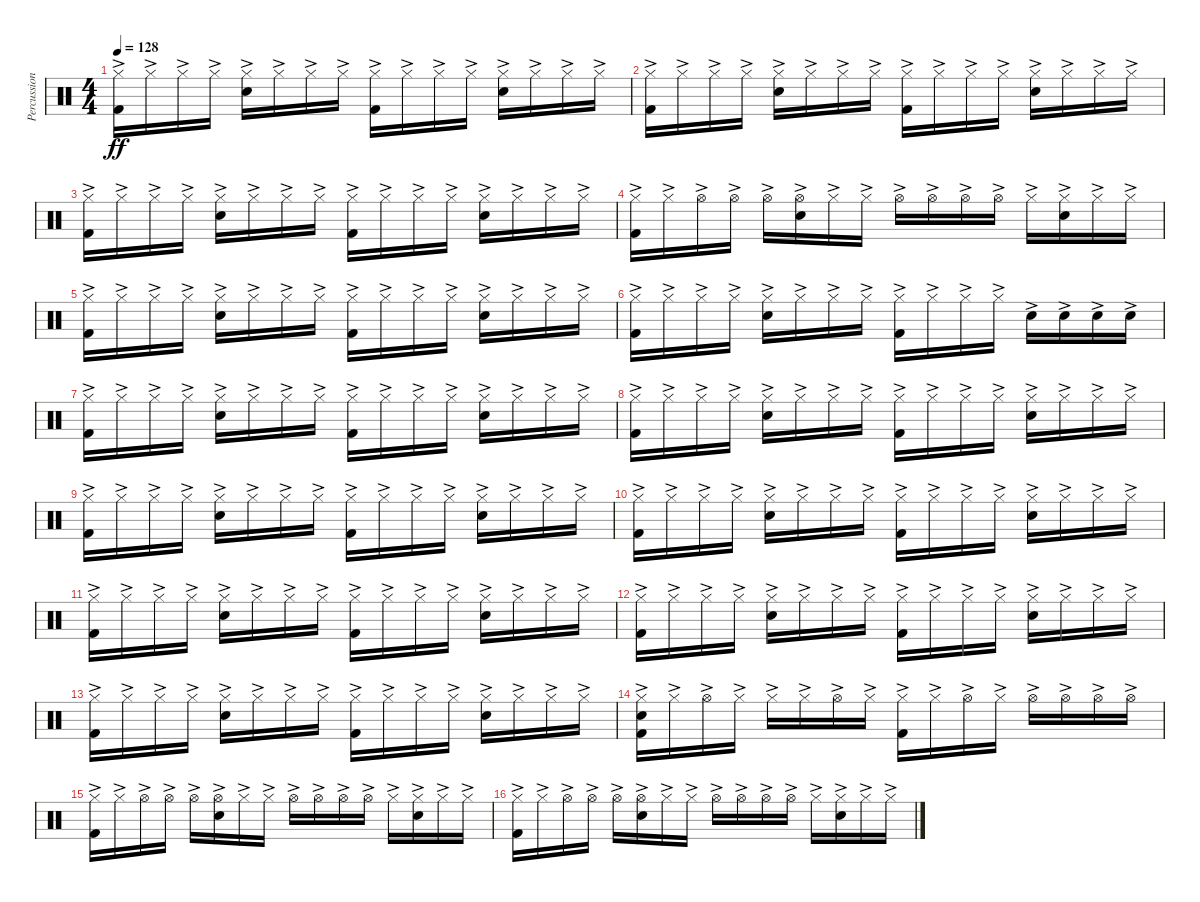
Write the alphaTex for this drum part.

\track ("Percussion" "Percussion") {instrument percussion}
\staff {score}
\articulation defaults
\ts (4 4)
\tempo 128
\clef neutral
\ks c
("Hi-Hat (closed)"{ac} "Kick (hit) 2"{ac}).16{dy ff} "Hi-Hat (closed)"{ac}.16 "Hi-Hat (closed)"{ac}.16 "Hi-Hat (closed)"{ac}.16 ("Hi-Hat (closed)"{ac} "Snare (hit) 2"{ac}).16 "Hi-Hat (closed)"{ac}.16 "Hi-Hat (closed)"{ac}.16 "Hi-Hat (closed)"{ac}.16 ("Hi-Hat (closed)"{ac} "Kick (hit) 2"{ac}).16 "Hi-Hat (closed)"{ac}.16 "Hi-Hat (closed)"{ac}.16 "Hi-Hat (closed)"{ac}.16 ("Hi-Hat (closed)"{ac} "Snare (hit) 2"{ac}).16 "Hi-Hat (closed)"{ac}.16 "Hi-Hat (closed)"{ac}.16 "Hi-Hat (closed)"{ac}.16 |
("Hi-Hat (closed)"{ac} "Kick (hit) 2"{ac}).16 "Hi-Hat (closed)"{ac}.16 "Hi-Hat (closed)"{ac}.16 "Hi-Hat (closed)"{ac}.16 ("Hi-Hat (closed)"{ac} "Snare (hit) 2"{ac}).16 "Hi-Hat (closed)"{ac}.16 "Hi-Hat (closed)"{ac}.16 "Hi-Hat (closed)"{ac}.16 ("Hi-Hat (closed)"{ac} "Kick (hit) 2"{ac}).16 "Hi-Hat (closed)"{ac}.16 "Hi-Hat (closed)"{ac}.16 "Hi-Hat (closed)"{ac}.16 ("Hi-Hat (closed)"{ac} "Snare (hit) 2"{ac}).16 "Hi-Hat (closed)"{ac}.16 "Hi-Hat (closed)"{ac}.16 "Hi-Hat (closed)"{ac}.16 |
("Hi-Hat (closed)"{ac} "Kick (hit) 2"{ac}).16 "Hi-Hat (closed)"{ac}.16 "Hi-Hat (closed)"{ac}.16 "Hi-Hat (closed)"{ac}.16 ("Hi-Hat (closed)"{ac} "Snare (hit) 2"{ac}).16 "Hi-Hat (closed)"{ac}.16 "Hi-Hat (closed)"{ac}.16 "Hi-Hat (closed)"{ac}.16 ("Hi-Hat (closed)"{ac} "Kick (hit) 2"{ac}).16 "Hi-Hat (closed)"{ac}.16 "Hi-Hat (closed)"{ac}.16 "Hi-Hat (closed)"{ac}.16 ("Hi-Hat (closed)"{ac} "Snare (hit) 2"{ac}).16 "Hi-Hat (closed)"{ac}.16 "Hi-Hat (closed)"{ac}.16 "Hi-Hat (closed)"{ac}.16 |
("Hi-Hat (closed)"{ac} "Kick (hit) 2"{ac}).16 "Hi-Hat (closed)"{ac}.16 "Hi-Hat (open)"{ac}.16 "Hi-Hat (open)"{ac}.16 "Hi-Hat (open)"{ac}.16 ("Hi-Hat (open)"{ac} "Snare (hit) 2"{ac}).16 "Hi-Hat (closed)"{ac}.16 "Hi-Hat (closed)"{ac}.16 "Hi-Hat (open)"{ac}.16 "Hi-Hat (open)"{ac}.16 "Hi-Hat (open)"{ac}.16 "Hi-Hat (open)"{ac}.16 "Hi-Hat (closed)"{ac}.16 ("Hi-Hat (closed)"{ac} "Snare (hit) 2"{ac}).16 "Hi-Hat (closed)"{ac}.16 "Hi-Hat (closed)"{ac}.16 |
("Hi-Hat (closed)"{ac} "Kick (hit) 2"{ac}).16 "Hi-Hat (closed)"{ac}.16 "Hi-Hat (closed)"{ac}.16 "Hi-Hat (closed)"{ac}.16 ("Hi-Hat (closed)"{ac} "Snare (hit) 2"{ac}).16 "Hi-Hat (closed)"{ac}.16 "Hi-Hat (closed)"{ac}.16 "Hi-Hat (closed)"{ac}.16 ("Hi-Hat (closed)"{ac} "Kick (hit) 2"{ac}).16 "Hi-Hat (closed)"{ac}.16 "Hi-Hat (closed)"{ac}.16 "Hi-Hat (closed)"{ac}.16 ("Hi-Hat (closed)"{ac} "Snare (hit) 2"{ac}).16 "Hi-Hat (closed)"{ac}.16 "Hi-Hat (closed)"{ac}.16 "Hi-Hat (closed)"{ac}.16 |
("Hi-Hat (closed)"{ac} "Kick (hit) 2"{ac}).16 "Hi-Hat (closed)"{ac}.16 "Hi-Hat (closed)"{ac}.16 "Hi-Hat (closed)"{ac}.16 ("Hi-Hat (closed)"{ac} "Snare (hit) 2"{ac}).16 "Hi-Hat (closed)"{ac}.16 "Hi-Hat (closed)"{ac}.16 "Hi-Hat (closed)"{ac}.16 ("Hi-Hat (closed)"{ac} "Kick (hit) 2"{ac}).16 "Hi-Hat (closed)"{ac}.16 "Hi-Hat (closed)"{ac}.16 "Hi-Hat (closed)"{ac}.16 "Snare (hit) 2"{ac}.16 "Snare (hit) 2"{ac}.16 "Snare (hit) 2"{ac}.16 "Snare (hit) 2"{ac}.16 |
("Hi-Hat (closed)"{ac} "Kick (hit) 2"{ac}).16 "Hi-Hat (closed)"{ac}.16 "Hi-Hat (closed)"{ac}.16 "Hi-Hat (closed)"{ac}.16 ("Hi-Hat (closed)"{ac} "Snare (hit) 2"{ac}).16 "Hi-Hat (closed)"{ac}.16 "Hi-Hat (closed)"{ac}.16 "Hi-Hat (closed)"{ac}.16 ("Hi-Hat (closed)"{ac} "Kick (hit) 2"{ac}).16 "Hi-Hat (closed)"{ac}.16 "Hi-Hat (closed)"{ac}.16 "Hi-Hat (closed)"{ac}.16 ("Hi-Hat (closed)"{ac} "Snare (hit) 2"{ac}).16 "Hi-Hat (closed)"{ac}.16 "Hi-Hat (closed)"{ac}.16 "Hi-Hat (closed)"{ac}.16 |
("Hi-Hat (closed)"{ac} "Kick (hit) 2"{ac}).16 "Hi-Hat (closed)"{ac}.16 "Hi-Hat (closed)"{ac}.16 "Hi-Hat (closed)"{ac}.16 ("Hi-Hat (closed)"{ac} "Snare (hit) 2"{ac}).16 "Hi-Hat (closed)"{ac}.16 "Hi-Hat (closed)"{ac}.16 "Hi-Hat (closed)"{ac}.16 ("Hi-Hat (closed)"{ac} "Kick (hit) 2"{ac}).16 "Hi-Hat (closed)"{ac}.16 "Hi-Hat (closed)"{ac}.16 "Hi-Hat (closed)"{ac}.16 ("Hi-Hat (closed)"{ac} "Snare (hit) 2"{ac}).16 "Hi-Hat (closed)"{ac}.16 "Hi-Hat (closed)"{ac}.16 "Hi-Hat (closed)"{ac}.16 |
("Hi-Hat (closed)"{ac} "Kick (hit) 2"{ac}).16 "Hi-Hat (closed)"{ac}.16 "Hi-Hat (closed)"{ac}.16 "Hi-Hat (closed)"{ac}.16 ("Hi-Hat (closed)"{ac} "Snare (hit) 2"{ac}).16 "Hi-Hat (closed)"{ac}.16 "Hi-Hat (closed)"{ac}.16 "Hi-Hat (closed)"{ac}.16 ("Hi-Hat (closed)"{ac} "Kick (hit) 2"{ac}).16 "Hi-Hat (closed)"{ac}.16 "Hi-Hat (closed)"{ac}.16 "Hi-Hat (closed)"{ac}.16 ("Hi-Hat (closed)"{ac} "Snare (hit) 2"{ac}).16 "Hi-Hat (closed)"{ac}.16 "Hi-Hat (closed)"{ac}.16 "Hi-Hat (closed)"{ac}.16 |
("Hi-Hat (closed)"{ac} "Kick (hit) 2"{ac}).16 "Hi-Hat (closed)"{ac}.16 "Hi-Hat (closed)"{ac}.16 "Hi-Hat (closed)"{ac}.16 ("Hi-Hat (closed)"{ac} "Snare (hit) 2"{ac}).16 "Hi-Hat (closed)"{ac}.16 "Hi-Hat (closed)"{ac}.16 "Hi-Hat (closed)"{ac}.16 ("Hi-Hat (closed)"{ac} "Kick (hit) 2"{ac}).16 "Hi-Hat (closed)"{ac}.16 "Hi-Hat (closed)"{ac}.16 "Hi-Hat (closed)"{ac}.16 ("Hi-Hat (closed)"{ac} "Snare (hit) 2"{ac}).16 "Hi-Hat (closed)"{ac}.16 "Hi-Hat (closed)"{ac}.16 "Hi-Hat (closed)"{ac}.16 |
("Hi-Hat (closed)"{ac} "Kick (hit) 2"{ac}).16 "Hi-Hat (closed)"{ac}.16 "Hi-Hat (closed)"{ac}.16 "Hi-Hat (closed)"{ac}.16 ("Hi-Hat (closed)"{ac} "Snare (hit) 2"{ac}).16 "Hi-Hat (closed)"{ac}.16 "Hi-Hat (closed)"{ac}.16 "Hi-Hat (closed)"{ac}.16 ("Hi-Hat (closed)"{ac} "Kick (hit) 2"{ac}).16 "Hi-Hat (closed)"{ac}.16 "Hi-Hat (closed)"{ac}.16 "Hi-Hat (closed)"{ac}.16 ("Hi-Hat (closed)"{ac} "Snare (hit) 2"{ac}).16 "Hi-Hat (closed)"{ac}.16 "Hi-Hat (closed)"{ac}.16 "Hi-Hat (closed)"{ac}.16 |
("Hi-Hat (closed)"{ac} "Kick (hit) 2"{ac}).16 "Hi-Hat (closed)"{ac}.16 "Hi-Hat (closed)"{ac}.16 "Hi-Hat (closed)"{ac}.16 ("Hi-Hat (closed)"{ac} "Snare (hit) 2"{ac}).16 "Hi-Hat (closed)"{ac}.16 "Hi-Hat (closed)"{ac}.16 "Hi-Hat (closed)"{ac}.16 ("Hi-Hat (closed)"{ac} "Kick (hit) 2"{ac}).16 "Hi-Hat (closed)"{ac}.16 "Hi-Hat (closed)"{ac}.16 "Hi-Hat (closed)"{ac}.16 ("Hi-Hat (closed)"{ac} "Snare (hit) 2"{ac}).16 "Hi-Hat (closed)"{ac}.16 "Hi-Hat (closed)"{ac}.16 "Hi-Hat (closed)"{ac}.16 |
("Hi-Hat (closed)"{ac} "Kick (hit) 2"{ac}).16 "Hi-Hat (closed)"{ac}.16 "Hi-Hat (closed)"{ac}.16 "Hi-Hat (closed)"{ac}.16 ("Hi-Hat (closed)"{ac} "Snare (hit) 2"{ac}).16 "Hi-Hat (closed)"{ac}.16 "Hi-Hat (closed)"{ac}.16 "Hi-Hat (closed)"{ac}.16 ("Hi-Hat (closed)"{ac} "Kick (hit) 2"{ac}).16 "Hi-Hat (closed)"{ac}.16 "Hi-Hat (closed)"{ac}.16 "Hi-Hat (closed)"{ac}.16 ("Hi-Hat (closed)"{ac} "Snare (hit) 2"{ac}).16 "Hi-Hat (closed)"{ac}.16 "Hi-Hat (closed)"{ac}.16 "Hi-Hat (closed)"{ac}.16 |
("Hi-Hat (closed)"{ac} "Snare (hit) 2"{ac} "Kick (hit) 2"{ac}).16 "Hi-Hat (closed)"{ac}.16 "Hi-Hat (open)"{ac}.16 "Hi-Hat (closed)"{ac}.16 "Hi-Hat (closed)"{ac}.16 "Hi-Hat (closed)"{ac}.16 "Hi-Hat (open)"{ac}.16 "Hi-Hat (closed)"{ac}.16 ("Hi-Hat (closed)"{ac} "Kick (hit) 2"{ac}).16 "Hi-Hat (closed)"{ac}.16 "Hi-Hat (open)"{ac}.16 "Hi-Hat (closed)"{ac}.16 "Hi-Hat (open)"{ac}.16 "Hi-Hat (open)"{ac}.16 "Hi-Hat (open)"{ac}.16 "Hi-Hat (open)"{ac}.16 |
("Hi-Hat (closed)"{ac} "Kick (hit) 2"{ac}).16 "Hi-Hat (closed)"{ac}.16 "Hi-Hat (open)"{ac}.16 "Hi-Hat (open)"{ac}.16 "Hi-Hat (open)"{ac}.16 ("Hi-Hat (open)"{ac} "Snare (hit) 2"{ac}).16 "Hi-Hat (closed)"{ac}.16 "Hi-Hat (closed)"{ac}.16 "Hi-Hat (open)"{ac}.16 "Hi-Hat (open)"{ac}.16 "Hi-Hat (open)"{ac}.16 "Hi-Hat (open)"{ac}.16 "Hi-Hat (closed)"{ac}.16 ("Hi-Hat (closed)"{ac} "Snare (hit) 2"{ac}).16 "Hi-Hat (closed)"{ac}.16 "Hi-Hat (closed)"{ac}.16 |
("Hi-Hat (closed)"{ac} "Kick (hit) 2"{ac}).16 "Hi-Hat (closed)"{ac}.16 "Hi-Hat (open)"{ac}.16 "Hi-Hat (open)"{ac}.16 "Hi-Hat (open)"{ac}.16 ("Hi-Hat (open)"{ac} "Snare (hit) 2"{ac}).16 "Hi-Hat (closed)"{ac}.16 "Hi-Hat (closed)"{ac}.16 "Hi-Hat (open)"{ac}.16 "Hi-Hat (open)"{ac}.16 "Hi-Hat (open)"{ac}.16 "Hi-Hat (open)"{ac}.16 "Hi-Hat (closed)"{ac}.16 ("Hi-Hat (closed)"{ac} "Snare (hit) 2"{ac}).16 "Hi-Hat (closed)"{ac}.16 "Hi-Hat (closed)"{ac}.16
